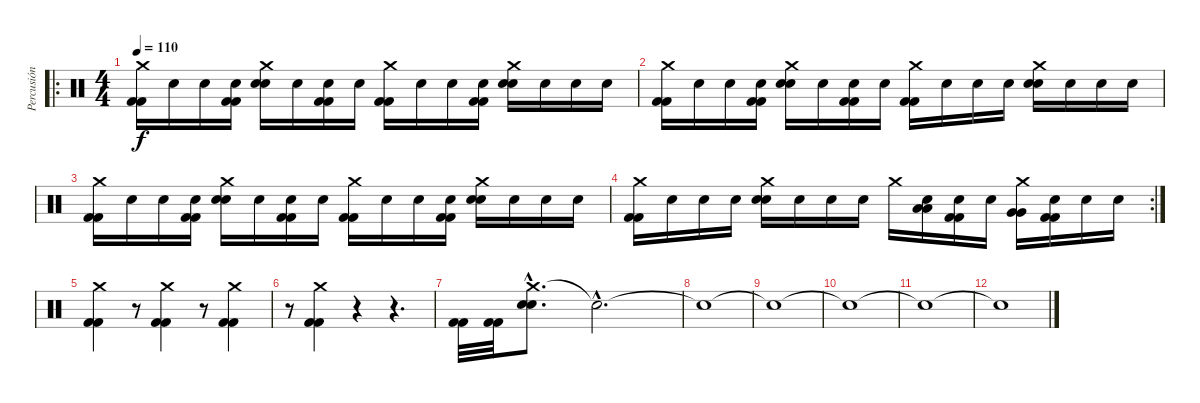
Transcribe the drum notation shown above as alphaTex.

\track ("Percusión" "Percusión") {instrument percussion}
\staff {score}
\articulation defaults
\ro
\ts (4 4)
\tempo 110
\clef neutral
\ks c
("Crash medium (hit)" "Kick (hit) 2" "Kick (hit) 2").16{dy f} "Snare (hit)".16 "Snare (hit)".16 ("Snare (hit)" "Kick (hit) 2" "Kick (hit) 2").16 ("Crash medium (hit)" "Electric Snare (hit)" "Electric Snare (hit)").16 "Snare (hit)".16 ("Snare (hit)" "Kick (hit) 2" "Kick (hit) 2").16 "Snare (hit)".16 ("Crash medium (hit)" "Kick (hit) 2" "Kick (hit) 2").16 "Snare (hit)".16 "Snare (hit)".16 ("Snare (hit)" "Kick (hit) 2" "Kick (hit) 2").16 ("Crash medium (hit)" "Electric Snare (hit)" "Electric Snare (hit)").16 "Snare (hit)".16 "Snare (hit)".16 "Snare (hit)".16 |
("Crash medium (hit)" "Kick (hit) 2" "Kick (hit) 2").16 "Snare (hit)".16 "Snare (hit)".16 ("Snare (hit)" "Kick (hit) 2" "Kick (hit) 2").16 ("Crash medium (hit)" "Electric Snare (hit)" "Electric Snare (hit)").16 "Snare (hit)".16 ("Snare (hit)" "Kick (hit) 2" "Kick (hit) 2").16 "Snare (hit)".16 ("Crash medium (hit)" "Kick (hit) 2" "Kick (hit) 2").16 "Snare (hit)".16 "Snare (hit)".16 "Snare (hit)".16 ("Crash medium (hit)" "Electric Snare (hit)" "Electric Snare (hit)").16 "Snare (hit)".16 "Snare (hit)".16 "Snare (hit)".16 |
("Crash medium (hit)" "Kick (hit) 2" "Kick (hit) 2").16 "Snare (hit)".16 "Snare (hit)".16 ("Snare (hit)" "Kick (hit) 2" "Kick (hit) 2").16 ("Crash medium (hit)" "Electric Snare (hit)" "Electric Snare (hit)").16 "Snare (hit)".16 ("Snare (hit)" "Kick (hit) 2" "Kick (hit) 2").16 "Snare (hit)".16 ("Crash medium (hit)" "Kick (hit) 2" "Kick (hit) 2").16 "Snare (hit)".16 "Snare (hit)".16 ("Snare (hit)" "Kick (hit) 2" "Kick (hit) 2").16 ("Crash medium (hit)" "Electric Snare (hit)" "Electric Snare (hit)").16 "Snare (hit)".16 "Snare (hit)".16 "Snare (hit)".16 |
\rc 2
("Crash medium (hit)" "Kick (hit) 2" "Kick (hit) 2").16 "Snare (hit)".16 "Snare (hit)".16 "Snare (hit)".16 ("Crash medium (hit)" "Electric Snare (hit)" "Electric Snare (hit)").16 "Snare (hit)".16 "Snare (hit)".16 "Snare (hit)".16 "Crash medium (hit)".16 ("Snare (hit)" "Low Tom (hit)" "Low Tom (hit)").16 ("Snare (hit)" "Kick (hit) 2" "Kick (hit) 2").16 "Snare (hit)".16 ("Crash medium (hit)" "Very Low Tom (hit)" "Very Low Tom (hit)").16 ("Snare (hit)" "Kick (hit) 2" "Kick (hit) 2").16 "Snare (hit)".16 "Snare (hit)".16 |
("Crash medium (hit)" "Kick (hit) 2" "Kick (hit) 2").4 r.8 ("Crash medium (hit)" "Kick (hit) 2" "Kick (hit) 2").4 r.8 ("Crash medium (hit)" "Kick (hit) 2" "Kick (hit) 2").4 |
r.8 ("Crash medium (hit)" "Kick (hit) 2" "Kick (hit) 2").4 r.4 r.4{d} |
("Kick (hit) 2" "Kick (hit) 2").32 ("Kick (hit) 2" "Kick (hit) 2").32 ("Crash medium (hit)"{hac} "Electric Snare (hit)"{hac} "Electric Snare (hit)"{hac}).8{d} "Snare (hit)"{hac t}.2{d} |
"Snare (hit)"{t}.1 |
"Snare (hit)"{t}.1 |
"Snare (hit)"{t}.1 |
"Snare (hit)"{t}.1 |
"Snare (hit)"{t}.1
